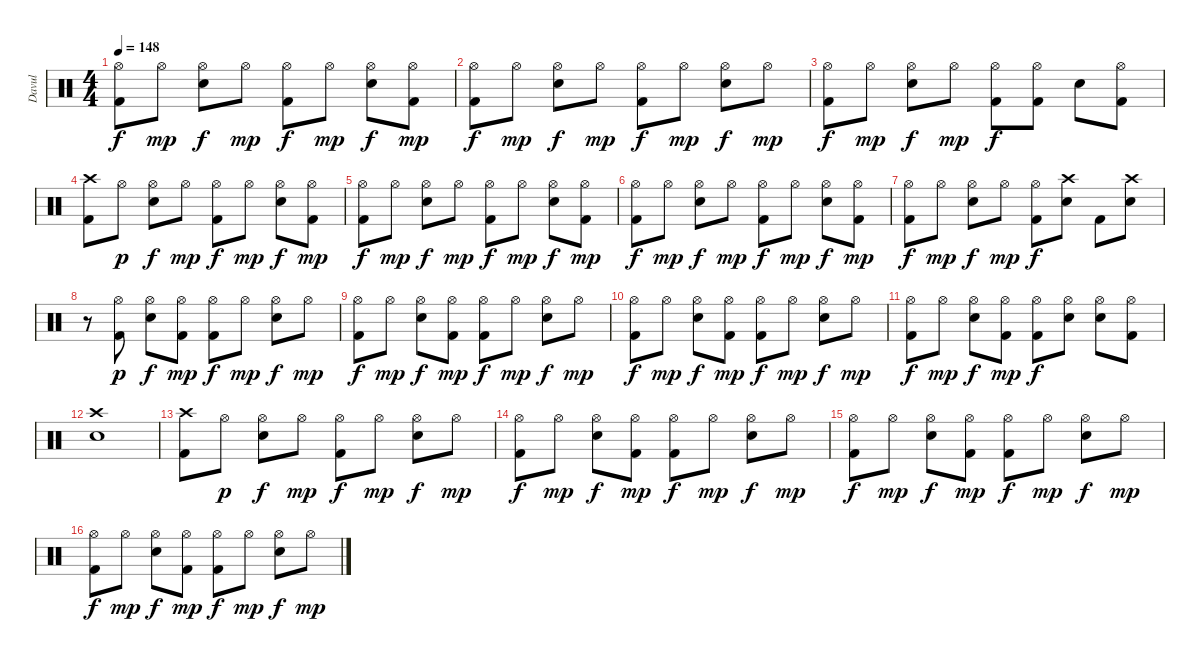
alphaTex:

\track ("Davul" "Davul") {instrument percussion}
\staff {score}
\articulation defaults
\ts (4 4)
\tempo 148
\clef neutral
\ks c
("Hi-Hat (open)" "Kick (hit) 2").8{dy f} "Hi-Hat (open)".8{dy mp} ("Hi-Hat (open)" "Electric Snare (hit)").8{dy f} "Hi-Hat (open)".8{dy mp} ("Hi-Hat (open)" "Kick (hit) 2").8{dy f} "Hi-Hat (open)".8{dy mp} ("Hi-Hat (open)" "Electric Snare (hit)").8{dy f} ("Hi-Hat (open)" "Kick (hit) 2").8{dy mp} |
("Hi-Hat (open)" "Kick (hit) 2").8{dy f} "Hi-Hat (open)".8{dy mp} ("Hi-Hat (open)" "Electric Snare (hit)").8{dy f} "Hi-Hat (open)".8{dy mp} ("Hi-Hat (open)" "Kick (hit) 2").8{dy f} "Hi-Hat (open)".8{dy mp} ("Hi-Hat (open)" "Electric Snare (hit)").8{dy f} "Hi-Hat (open)".8{dy mp} |
("Hi-Hat (open)" "Kick (hit) 2").8{dy f} "Hi-Hat (open)".8{dy mp} ("Hi-Hat (open)" "Electric Snare (hit)").8{dy f} "Hi-Hat (open)".8{dy mp} ("Hi-Hat (open)" "Kick (hit) 2").8{dy f} ("Hi-Hat (open)" "Kick (hit) 2").8 "Electric Snare (hit)".8 ("Hi-Hat (open)" "Kick (hit) 2").8 |
("Crash high (hit)" "Kick (hit) 2").8 "Hi-Hat (open)".8{dy p} ("Hi-Hat (open)" "Electric Snare (hit)").8{dy f} "Hi-Hat (open)".8{dy mp} ("Hi-Hat (open)" "Kick (hit) 2").8{dy f} "Hi-Hat (open)".8{dy mp} ("Hi-Hat (open)" "Electric Snare (hit)").8{dy f} ("Hi-Hat (open)" "Kick (hit) 2").8{dy mp} |
("Hi-Hat (open)" "Kick (hit) 2").8{dy f} "Hi-Hat (open)".8{dy mp} ("Hi-Hat (open)" "Electric Snare (hit)").8{dy f} "Hi-Hat (open)".8{dy mp} ("Hi-Hat (open)" "Kick (hit) 2").8{dy f} "Hi-Hat (open)".8{dy mp} ("Hi-Hat (open)" "Electric Snare (hit)").8{dy f} ("Hi-Hat (open)" "Kick (hit) 2").8{dy mp} |
("Hi-Hat (open)" "Kick (hit) 2").8{dy f} "Hi-Hat (open)".8{dy mp} ("Hi-Hat (open)" "Electric Snare (hit)").8{dy f} "Hi-Hat (open)".8{dy mp} ("Hi-Hat (open)" "Kick (hit) 2").8{dy f} "Hi-Hat (open)".8{dy mp} ("Hi-Hat (open)" "Electric Snare (hit)").8{dy f} ("Hi-Hat (open)" "Kick (hit) 2").8{dy mp} |
("Hi-Hat (open)" "Kick (hit) 2").8{dy f} "Hi-Hat (open)".8{dy mp} ("Hi-Hat (open)" "Electric Snare (hit)").8{dy f} "Hi-Hat (open)".8{dy mp} ("Hi-Hat (open)" "Kick (hit) 2").8{dy f} ("Crash high (hit)" "Electric Snare (hit)").8 "Kick (hit) 2".8 ("Crash high (hit)" "Electric Snare (hit)").8 |
r.8 ("Hi-Hat (open)" "Kick (hit) 2").8{dy p} ("Hi-Hat (open)" "Electric Snare (hit)").8{dy f} ("Hi-Hat (open)" "Kick (hit) 2").8{dy mp} ("Hi-Hat (open)" "Kick (hit) 2").8{dy f} "Hi-Hat (open)".8{dy mp} ("Hi-Hat (open)" "Electric Snare (hit)").8{dy f} "Hi-Hat (open)".8{dy mp} |
("Hi-Hat (open)" "Kick (hit) 2").8{dy f} "Hi-Hat (open)".8{dy mp} ("Hi-Hat (open)" "Electric Snare (hit)").8{dy f} ("Hi-Hat (open)" "Kick (hit) 2").8{dy mp} ("Hi-Hat (open)" "Kick (hit) 2").8{dy f} "Hi-Hat (open)".8{dy mp} ("Hi-Hat (open)" "Electric Snare (hit)").8{dy f} "Hi-Hat (open)".8{dy mp} |
("Hi-Hat (open)" "Kick (hit) 2").8{dy f} "Hi-Hat (open)".8{dy mp} ("Hi-Hat (open)" "Electric Snare (hit)").8{dy f} ("Hi-Hat (open)" "Kick (hit) 2").8{dy mp} ("Hi-Hat (open)" "Kick (hit) 2").8{dy f} "Hi-Hat (open)".8{dy mp} ("Hi-Hat (open)" "Electric Snare (hit)").8{dy f} "Hi-Hat (open)".8{dy mp} |
("Hi-Hat (open)" "Kick (hit) 2").8{dy f} "Hi-Hat (open)".8{dy mp} ("Hi-Hat (open)" "Electric Snare (hit)").8{dy f} ("Hi-Hat (open)" "Kick (hit) 2").8{dy mp} ("Hi-Hat (open)" "Kick (hit) 2").8{dy f} ("Hi-Hat (open)" "Electric Snare (hit)").8 ("Hi-Hat (open)" "Electric Snare (hit)").8 ("Hi-Hat (open)" "Kick (hit) 2").8 |
("Crash high (hit)" "Electric Snare (hit)").1 |
("Crash high (hit)" "Kick (hit) 2").8 "Hi-Hat (open)".8{dy p} ("Hi-Hat (open)" "Electric Snare (hit)").8{dy f} "Hi-Hat (open)".8{dy mp} ("Hi-Hat (open)" "Kick (hit) 2").8{dy f} "Hi-Hat (open)".8{dy mp} ("Hi-Hat (open)" "Electric Snare (hit)").8{dy f} "Hi-Hat (open)".8{dy mp} |
("Hi-Hat (open)" "Kick (hit) 2").8{dy f} "Hi-Hat (open)".8{dy mp} ("Hi-Hat (open)" "Electric Snare (hit)").8{dy f} ("Hi-Hat (open)" "Kick (hit) 2").8{dy mp} ("Hi-Hat (open)" "Kick (hit) 2").8{dy f} "Hi-Hat (open)".8{dy mp} ("Hi-Hat (open)" "Electric Snare (hit)").8{dy f} "Hi-Hat (open)".8{dy mp} |
("Hi-Hat (open)" "Kick (hit) 2").8{dy f} "Hi-Hat (open)".8{dy mp} ("Hi-Hat (open)" "Electric Snare (hit)").8{dy f} ("Hi-Hat (open)" "Kick (hit) 2").8{dy mp} ("Hi-Hat (open)" "Kick (hit) 2").8{dy f} "Hi-Hat (open)".8{dy mp} ("Hi-Hat (open)" "Electric Snare (hit)").8{dy f} "Hi-Hat (open)".8{dy mp} |
("Hi-Hat (open)" "Kick (hit) 2").8{dy f} "Hi-Hat (open)".8{dy mp} ("Hi-Hat (open)" "Electric Snare (hit)").8{dy f} ("Hi-Hat (open)" "Kick (hit) 2").8{dy mp} ("Hi-Hat (open)" "Kick (hit) 2").8{dy f} "Hi-Hat (open)".8{dy mp} ("Hi-Hat (open)" "Electric Snare (hit)").8{dy f} "Hi-Hat (open)".8{dy mp}
